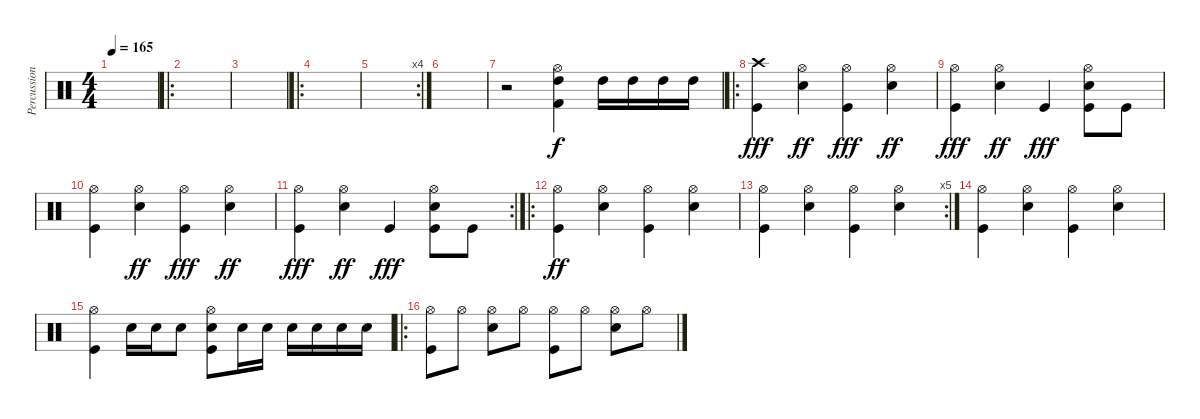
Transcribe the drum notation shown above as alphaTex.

\track ("Percussioni" "Percussion") {instrument percussion}
\staff {score}
\articulation defaults
\ts (4 4)
\tempo 165
\clef neutral
\ks c
|
\ro
|
|
\ro
|
\rc 4
|
|
r.2 ("Hi-Hat (open)" "High Tom (hit)" "Kick (hit) 2").4 "High Tom (hit)".16{dy f} "High Tom (hit)".16 "High Tom (hit)".16 "High Tom (hit)".16 |
\ro
("Crash high (hit)" "Kick (hit)").4{dy fff} ("Hi-Hat (open)" "Electric Snare (hit)").4{dy ff} ("Hi-Hat (open)" "Kick (hit)").4{dy fff} ("Hi-Hat (open)" "Electric Snare (hit)").4{dy ff} |
("Hi-Hat (open)" "Kick (hit)").4{dy fff} ("Hi-Hat (open)" "Electric Snare (hit)").4{dy ff} "Kick (hit)".4{dy fff} ("Hi-Hat (open)" "Electric Snare (hit)" "Kick (hit)").8 "Kick (hit)".8 |
("Hi-Hat (open)" "Kick (hit)").4 ("Hi-Hat (open)" "Electric Snare (hit)").4{dy ff} ("Hi-Hat (open)" "Kick (hit)").4{dy fff} ("Hi-Hat (open)" "Electric Snare (hit)").4{dy ff} |
\rc 2
("Hi-Hat (open)" "Kick (hit)").4{dy fff} ("Hi-Hat (open)" "Electric Snare (hit)").4{dy ff} "Kick (hit)".4{dy fff} ("Hi-Hat (open)" "Electric Snare (hit)" "Kick (hit)").8 "Kick (hit)".8 |
\ro
("Hi-Hat (open)" "Kick (hit)").4{dy ff} ("Hi-Hat (open)" "Electric Snare (hit)").4 ("Hi-Hat (open)" "Kick (hit)").4 ("Hi-Hat (open)" "Electric Snare (hit)").4 |
\rc 5
("Hi-Hat (open)" "Kick (hit)").4 ("Hi-Hat (open)" "Electric Snare (hit)").4 ("Hi-Hat (open)" "Kick (hit)").4 ("Hi-Hat (open)" "Electric Snare (hit)").4 |
("Hi-Hat (open)" "Kick (hit)").4 ("Hi-Hat (open)" "Electric Snare (hit)").4 ("Hi-Hat (open)" "Kick (hit)").4 ("Hi-Hat (open)" "Electric Snare (hit)").4 |
("Hi-Hat (open)" "Kick (hit)").4 "Electric Snare (hit)".16 "Electric Snare (hit)".16 "Electric Snare (hit)".8 ("Hi-Hat (open)" "Electric Snare (hit)" "Kick (hit)").8 "Electric Snare (hit)".16 "Electric Snare (hit)".16 "Electric Snare (hit)".16 "Electric Snare (hit)".16 "Electric Snare (hit)".16 "Electric Snare (hit)".16 |
\ro
("Hi-Hat (open)" "Kick (hit)").8 "Hi-Hat (open)".8 ("Hi-Hat (open)" "Electric Snare (hit)").8 "Hi-Hat (open)".8 ("Hi-Hat (open)" "Kick (hit)").8 "Hi-Hat (open)".8 ("Hi-Hat (open)" "Electric Snare (hit)").8 "Hi-Hat (open)".8
